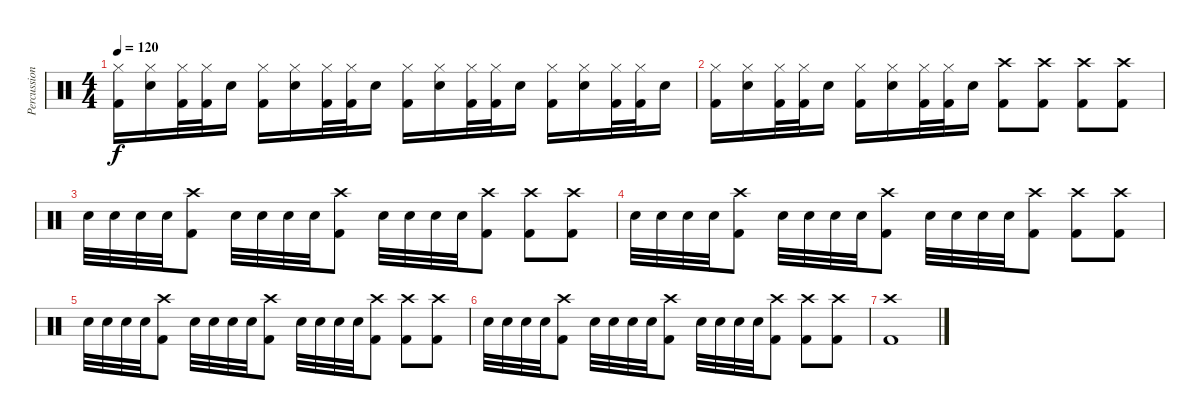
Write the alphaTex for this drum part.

\track ("Percussion" "Percussion") {instrument percussion}
\staff {score}
\articulation defaults
\ts (4 4)
\tempo 120
\clef neutral
\ks c
("Hi-Hat (closed)" "Kick (hit) 2").16{dy f} ("Hi-Hat (closed)" "Electric Snare (hit)").16 ("Hi-Hat (closed)" "Kick (hit) 2").32 ("Hi-Hat (closed)" "Kick (hit) 2").32 "Electric Snare (hit)".16 ("Hi-Hat (closed)" "Kick (hit) 2").16 ("Hi-Hat (closed)" "Electric Snare (hit)").16 ("Hi-Hat (closed)" "Kick (hit) 2").32 ("Hi-Hat (closed)" "Kick (hit) 2").32 "Electric Snare (hit)".16 ("Hi-Hat (closed)" "Kick (hit) 2").16 ("Hi-Hat (closed)" "Electric Snare (hit)").16 ("Hi-Hat (closed)" "Kick (hit) 2").32 ("Hi-Hat (closed)" "Kick (hit) 2").32 "Electric Snare (hit)".16 ("Hi-Hat (closed)" "Kick (hit) 2").16 ("Hi-Hat (closed)" "Electric Snare (hit)").16 ("Hi-Hat (closed)" "Kick (hit) 2").32 ("Hi-Hat (closed)" "Kick (hit) 2").32 "Electric Snare (hit)".16 |
("Hi-Hat (closed)" "Kick (hit) 2").16 ("Hi-Hat (closed)" "Electric Snare (hit)").16 ("Hi-Hat (closed)" "Kick (hit) 2").32 ("Hi-Hat (closed)" "Kick (hit) 2").32 "Electric Snare (hit)".16 ("Hi-Hat (closed)" "Kick (hit) 2").16 ("Hi-Hat (closed)" "Electric Snare (hit)").16 ("Hi-Hat (closed)" "Kick (hit) 2").32 ("Hi-Hat (closed)" "Kick (hit) 2").32 "Electric Snare (hit)".16 ("Crash high (hit)" "Kick (hit) 2").8 ("Crash high (hit)" "Kick (hit) 2").8 ("Crash high (hit)" "Kick (hit) 2").8 ("Crash high (hit)" "Kick (hit) 2").8 |
"Electric Snare (hit)".32 "Electric Snare (hit)".32 "Electric Snare (hit)".32 "Electric Snare (hit)".32 ("Crash high (hit)" "Kick (hit) 2").8 "Electric Snare (hit)".32 "Electric Snare (hit)".32 "Electric Snare (hit)".32 "Electric Snare (hit)".32 ("Crash high (hit)" "Kick (hit) 2").8 "Electric Snare (hit)".32 "Electric Snare (hit)".32 "Electric Snare (hit)".32 "Electric Snare (hit)".32 ("Crash high (hit)" "Kick (hit) 2").8 ("Crash high (hit)" "Kick (hit) 2").8 ("Crash high (hit)" "Kick (hit) 2").8 |
"Electric Snare (hit)".32 "Electric Snare (hit)".32 "Electric Snare (hit)".32 "Electric Snare (hit)".32 ("Crash high (hit)" "Kick (hit) 2").8 "Electric Snare (hit)".32 "Electric Snare (hit)".32 "Electric Snare (hit)".32 "Electric Snare (hit)".32 ("Crash high (hit)" "Kick (hit) 2").8 "Electric Snare (hit)".32 "Electric Snare (hit)".32 "Electric Snare (hit)".32 "Electric Snare (hit)".32 ("Crash high (hit)" "Kick (hit) 2").8 ("Crash high (hit)" "Kick (hit) 2").8 ("Crash high (hit)" "Kick (hit) 2").8 |
"Electric Snare (hit)".32 "Electric Snare (hit)".32 "Electric Snare (hit)".32 "Electric Snare (hit)".32 ("Crash high (hit)" "Kick (hit) 2").8 "Electric Snare (hit)".32 "Electric Snare (hit)".32 "Electric Snare (hit)".32 "Electric Snare (hit)".32 ("Crash high (hit)" "Kick (hit) 2").8 "Electric Snare (hit)".32 "Electric Snare (hit)".32 "Electric Snare (hit)".32 "Electric Snare (hit)".32 ("Crash high (hit)" "Kick (hit) 2").8 ("Crash high (hit)" "Kick (hit) 2").8 ("Crash high (hit)" "Kick (hit) 2").8 |
"Electric Snare (hit)".32 "Electric Snare (hit)".32 "Electric Snare (hit)".32 "Electric Snare (hit)".32 ("Crash high (hit)" "Kick (hit) 2").8 "Electric Snare (hit)".32 "Electric Snare (hit)".32 "Electric Snare (hit)".32 "Electric Snare (hit)".32 ("Crash high (hit)" "Kick (hit) 2").8 "Electric Snare (hit)".32 "Electric Snare (hit)".32 "Electric Snare (hit)".32 "Electric Snare (hit)".32 ("Crash high (hit)" "Kick (hit) 2").8 ("Crash high (hit)" "Kick (hit) 2").8 ("Crash high (hit)" "Kick (hit) 2").8 |
("Crash high (hit)" "Kick (hit) 2").1
